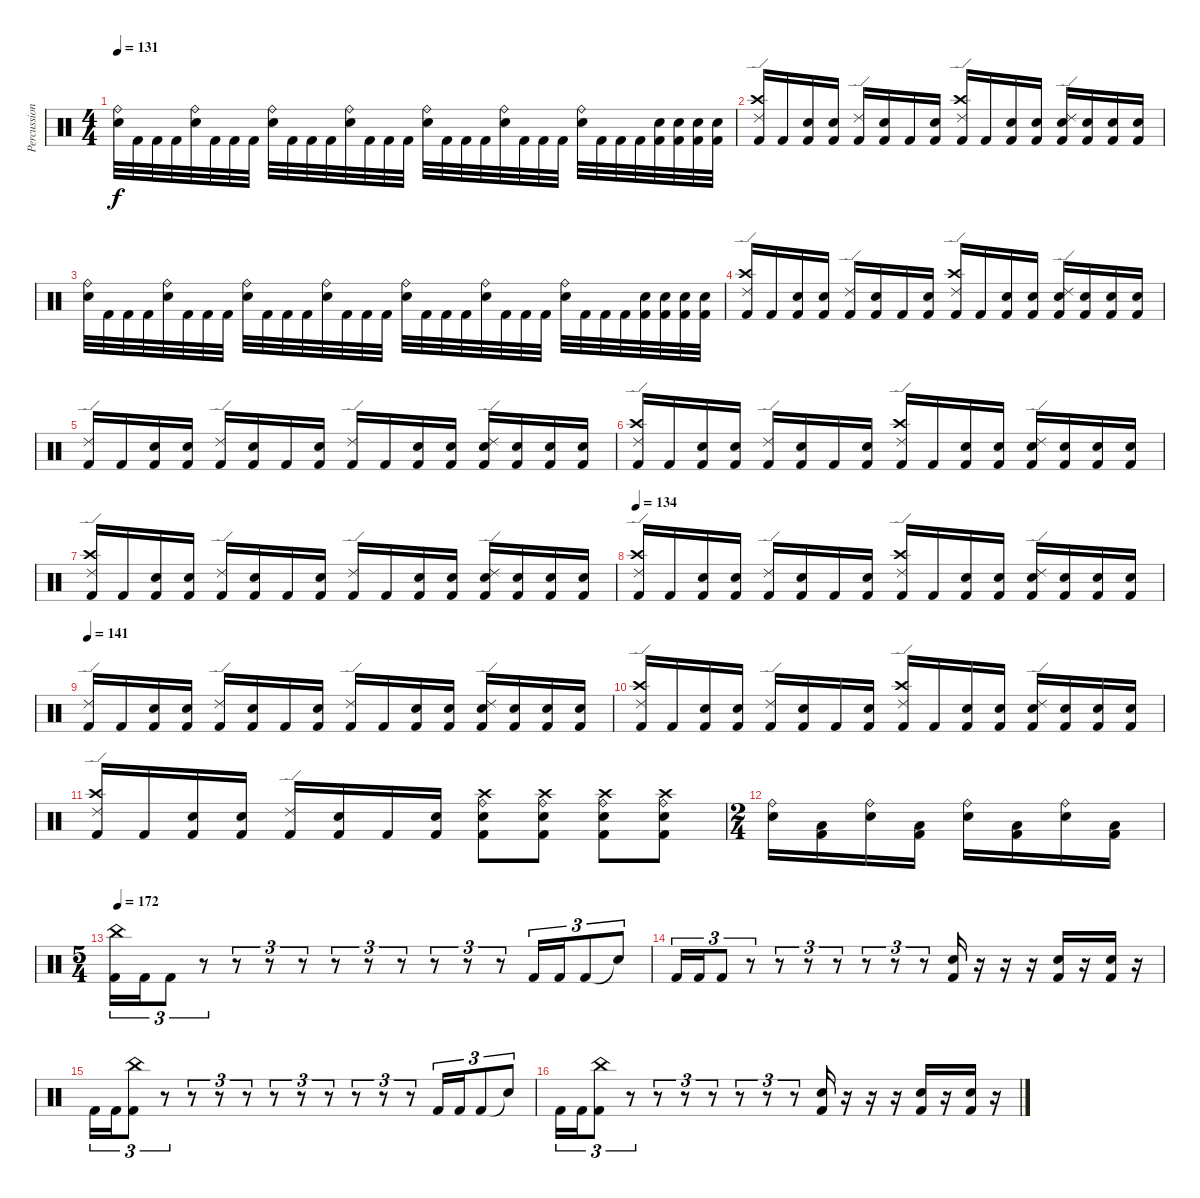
\track ("Percussion" "Percussion") {instrument percussion}
\staff {score}
\articulation defaults
\ts (4 4)
\tempo 131
\clef neutral
\ks c
("Ride (bell)" "Electric Snare (hit)").32{dy f} "Kick (hit) 2".32 "Kick (hit) 2".32 "Kick (hit) 2".32 ("Ride (bell)" "Electric Snare (hit)").32 "Kick (hit) 2".32 "Kick (hit) 2".32 "Kick (hit) 2".32 ("Ride (bell)" "Electric Snare (hit)").32 "Kick (hit) 2".32 "Kick (hit) 2".32 "Kick (hit) 2".32 ("Ride (bell)" "Electric Snare (hit)").32 "Kick (hit) 2".32 "Kick (hit) 2".32 "Kick (hit) 2".32 ("Ride (bell)" "Electric Snare (hit)").32 "Kick (hit) 2".32 "Kick (hit) 2".32 "Kick (hit) 2".32 ("Ride (bell)" "Electric Snare (hit)").32 "Kick (hit) 2".32 "Kick (hit) 2".32 "Kick (hit) 2".32 ("Ride (bell)" "Electric Snare (hit)").32 "Kick (hit) 2".32 "Kick (hit) 2".32 "Kick (hit) 2".32 ("Electric Snare (hit)" "Kick (hit) 2").32 ("Electric Snare (hit)" "Kick (hit) 2").32 ("Electric Snare (hit)" "Kick (hit) 2").32 ("Electric Snare (hit)" "Kick (hit) 2").32 |
("Crash high (hit)" "Ride (edge) 2" "Kick (hit) 2").16 "Kick (hit) 2".16 ("Electric Snare (hit)" "Kick (hit) 2").16 ("Electric Snare (hit)" "Kick (hit) 2").16 ("Ride (edge) 2" "Kick (hit) 2").16 ("Electric Snare (hit)" "Kick (hit) 2").16 "Kick (hit) 2".16 ("Electric Snare (hit)" "Kick (hit) 2").16 ("Crash high (hit)" "Ride (edge) 2" "Kick (hit) 2").16 "Kick (hit) 2".16 ("Electric Snare (hit)" "Kick (hit) 2").16 ("Electric Snare (hit)" "Kick (hit) 2").16 ("Ride (edge) 2" "Electric Snare (hit)" "Kick (hit) 2").16 ("Electric Snare (hit)" "Kick (hit) 2").16 ("Electric Snare (hit)" "Kick (hit) 2").16 ("Electric Snare (hit)" "Kick (hit) 2").16 |
("Ride (bell)" "Electric Snare (hit)").32 "Kick (hit) 2".32 "Kick (hit) 2".32 "Kick (hit) 2".32 ("Ride (bell)" "Electric Snare (hit)").32 "Kick (hit) 2".32 "Kick (hit) 2".32 "Kick (hit) 2".32 ("Ride (bell)" "Electric Snare (hit)").32 "Kick (hit) 2".32 "Kick (hit) 2".32 "Kick (hit) 2".32 ("Ride (bell)" "Electric Snare (hit)").32 "Kick (hit) 2".32 "Kick (hit) 2".32 "Kick (hit) 2".32 ("Ride (bell)" "Electric Snare (hit)").32 "Kick (hit) 2".32 "Kick (hit) 2".32 "Kick (hit) 2".32 ("Ride (bell)" "Electric Snare (hit)").32 "Kick (hit) 2".32 "Kick (hit) 2".32 "Kick (hit) 2".32 ("Ride (bell)" "Electric Snare (hit)").32 "Kick (hit) 2".32 "Kick (hit) 2".32 "Kick (hit) 2".32 ("Electric Snare (hit)" "Kick (hit) 2").32 ("Electric Snare (hit)" "Kick (hit) 2").32 ("Electric Snare (hit)" "Kick (hit) 2").32 ("Electric Snare (hit)" "Kick (hit) 2").32 |
("Crash high (hit)" "Ride (edge) 2" "Kick (hit) 2").16 "Kick (hit) 2".16 ("Electric Snare (hit)" "Kick (hit) 2").16 ("Electric Snare (hit)" "Kick (hit) 2").16 ("Ride (edge) 2" "Kick (hit) 2").16 ("Electric Snare (hit)" "Kick (hit) 2").16 "Kick (hit) 2".16 ("Electric Snare (hit)" "Kick (hit) 2").16 ("Crash high (hit)" "Ride (edge) 2" "Kick (hit) 2").16 "Kick (hit) 2".16 ("Electric Snare (hit)" "Kick (hit) 2").16 ("Electric Snare (hit)" "Kick (hit) 2").16 ("Ride (edge) 2" "Electric Snare (hit)" "Kick (hit) 2").16 ("Electric Snare (hit)" "Kick (hit) 2").16 ("Electric Snare (hit)" "Kick (hit) 2").16 ("Electric Snare (hit)" "Kick (hit) 2").16 |
("Ride (edge) 2" "Kick (hit) 2").16 "Kick (hit) 2".16 ("Electric Snare (hit)" "Kick (hit) 2").16 ("Electric Snare (hit)" "Kick (hit) 2").16 ("Ride (edge) 2" "Kick (hit) 2").16 ("Electric Snare (hit)" "Kick (hit) 2").16 "Kick (hit) 2".16 ("Electric Snare (hit)" "Kick (hit) 2").16 ("Ride (edge) 2" "Kick (hit) 2").16 "Kick (hit) 2".16 ("Electric Snare (hit)" "Kick (hit) 2").16 ("Electric Snare (hit)" "Kick (hit) 2").16 ("Ride (edge) 2" "Electric Snare (hit)" "Kick (hit) 2").16 ("Electric Snare (hit)" "Kick (hit) 2").16 ("Electric Snare (hit)" "Kick (hit) 2").16 ("Electric Snare (hit)" "Kick (hit) 2").16 |
("Crash high (hit)" "Ride (edge) 2" "Kick (hit) 2").16 "Kick (hit) 2".16 ("Electric Snare (hit)" "Kick (hit) 2").16 ("Electric Snare (hit)" "Kick (hit) 2").16 ("Ride (edge) 2" "Kick (hit) 2").16 ("Electric Snare (hit)" "Kick (hit) 2").16 "Kick (hit) 2".16 ("Electric Snare (hit)" "Kick (hit) 2").16 ("Crash high (hit)" "Ride (edge) 2" "Kick (hit) 2").16 "Kick (hit) 2".16 ("Electric Snare (hit)" "Kick (hit) 2").16 ("Electric Snare (hit)" "Kick (hit) 2").16 ("Ride (edge) 2" "Electric Snare (hit)" "Kick (hit) 2").16 ("Electric Snare (hit)" "Kick (hit) 2").16 ("Electric Snare (hit)" "Kick (hit) 2").16 ("Electric Snare (hit)" "Kick (hit) 2").16 |
("Crash high (hit)" "Ride (edge) 2" "Kick (hit) 2").16 "Kick (hit) 2".16 ("Electric Snare (hit)" "Kick (hit) 2").16 ("Electric Snare (hit)" "Kick (hit) 2").16 ("Ride (edge) 2" "Kick (hit) 2").16 ("Electric Snare (hit)" "Kick (hit) 2").16 "Kick (hit) 2".16 ("Electric Snare (hit)" "Kick (hit) 2").16 ("Ride (edge) 2" "Kick (hit) 2").16 "Kick (hit) 2".16 ("Electric Snare (hit)" "Kick (hit) 2").16 ("Electric Snare (hit)" "Kick (hit) 2").16 ("Ride (edge) 2" "Electric Snare (hit)" "Kick (hit) 2").16 ("Electric Snare (hit)" "Kick (hit) 2").16 ("Electric Snare (hit)" "Kick (hit) 2").16 ("Electric Snare (hit)" "Kick (hit) 2").16 |
\tempo 134
("Crash high (hit)" "Ride (edge) 2" "Kick (hit) 2").16 "Kick (hit) 2".16 ("Electric Snare (hit)" "Kick (hit) 2").16 ("Electric Snare (hit)" "Kick (hit) 2").16 ("Ride (edge) 2" "Kick (hit) 2").16 ("Electric Snare (hit)" "Kick (hit) 2").16 "Kick (hit) 2".16 ("Electric Snare (hit)" "Kick (hit) 2").16 ("Crash high (hit)" "Ride (edge) 2" "Kick (hit) 2").16 "Kick (hit) 2".16 ("Electric Snare (hit)" "Kick (hit) 2").16 ("Electric Snare (hit)" "Kick (hit) 2").16 ("Ride (edge) 2" "Electric Snare (hit)" "Kick (hit) 2").16 ("Electric Snare (hit)" "Kick (hit) 2").16 ("Electric Snare (hit)" "Kick (hit) 2").16 ("Electric Snare (hit)" "Kick (hit) 2").16 |
\tempo 141
("Ride (edge) 2" "Kick (hit) 2").16 "Kick (hit) 2".16 ("Electric Snare (hit)" "Kick (hit) 2").16 ("Electric Snare (hit)" "Kick (hit) 2").16 ("Ride (edge) 2" "Kick (hit) 2").16 ("Electric Snare (hit)" "Kick (hit) 2").16 "Kick (hit) 2".16 ("Electric Snare (hit)" "Kick (hit) 2").16 ("Ride (edge) 2" "Kick (hit) 2").16 "Kick (hit) 2".16 ("Electric Snare (hit)" "Kick (hit) 2").16 ("Electric Snare (hit)" "Kick (hit) 2").16 ("Ride (edge) 2" "Electric Snare (hit)" "Kick (hit) 2").16 ("Electric Snare (hit)" "Kick (hit) 2").16 ("Electric Snare (hit)" "Kick (hit) 2").16 ("Electric Snare (hit)" "Kick (hit) 2").16 |
("Crash high (hit)" "Ride (edge) 2" "Kick (hit) 2").16 "Kick (hit) 2".16 ("Electric Snare (hit)" "Kick (hit) 2").16 ("Electric Snare (hit)" "Kick (hit) 2").16 ("Ride (edge) 2" "Kick (hit) 2").16 ("Electric Snare (hit)" "Kick (hit) 2").16 "Kick (hit) 2".16 ("Electric Snare (hit)" "Kick (hit) 2").16 ("Crash high (hit)" "Ride (edge) 2" "Kick (hit) 2").16 "Kick (hit) 2".16 ("Electric Snare (hit)" "Kick (hit) 2").16 ("Electric Snare (hit)" "Kick (hit) 2").16 ("Ride (edge) 2" "Electric Snare (hit)" "Kick (hit) 2").16 ("Electric Snare (hit)" "Kick (hit) 2").16 ("Electric Snare (hit)" "Kick (hit) 2").16 ("Electric Snare (hit)" "Kick (hit) 2").16 |
("Crash high (hit)" "Ride (edge) 2" "Kick (hit) 2").16 "Kick (hit) 2".16 ("Electric Snare (hit)" "Kick (hit) 2").16 ("Electric Snare (hit)" "Kick (hit) 2").16 ("Ride (edge) 2" "Kick (hit) 2").16 ("Electric Snare (hit)" "Kick (hit) 2").16 "Kick (hit) 2".16 ("Electric Snare (hit)" "Kick (hit) 2").16 ("Crash high (hit)" "Ride (bell)" "Electric Snare (hit)" "Kick (hit) 2").8 ("Crash high (hit)" "Ride (bell)" "Electric Snare (hit)" "Kick (hit) 2").8 ("Crash high (hit)" "Ride (bell)" "Electric Snare (hit)" "Kick (hit) 2").8 ("Crash high (hit)" "Ride (bell)" "Electric Snare (hit)" "Kick (hit) 2").8 |
\ts (2 4)
("Ride (bell)" "Electric Snare (hit)").16 ("Low Tom (hit)" "Kick (hit) 2").16 ("Ride (bell)" "Electric Snare (hit)").16 ("Low Tom (hit)" "Kick (hit) 2").16 ("Ride (bell)" "Electric Snare (hit)").16 ("Low Tom (hit)" "Kick (hit) 2").16 ("Ride (bell)" "Electric Snare (hit)").16 ("Low Tom (hit)" "Kick (hit) 2").16 |
\ts (5 4)
\tempo 172
("China (hit)" "Kick (hit) 2").16{tu (3 2)} "Kick (hit) 2".16{tu (3 2)} "Kick (hit) 2".8{tu (3 2)} r.8{tu (3 2)} r.8{tu (3 2)} r.8{tu (3 2)} r.8{tu (3 2)} r.8{tu (3 2)} r.8{tu (3 2)} r.8{tu (3 2)} r.8{tu (3 2)} r.8{tu (3 2)} r.8{tu (3 2)} "Kick (hit) 2".16{tu (3 2)} "Kick (hit) 2".16{tu (3 2)} "Kick (hit) 2".8{tu (3 2)} "Snare (hit)"{t}.8{tu (3 2)} |
"Kick (hit) 2".16{tu (3 2)} "Kick (hit) 2".16{tu (3 2)} "Kick (hit) 2".8{tu (3 2)} r.8{tu (3 2)} r.8{tu (3 2)} r.8{tu (3 2)} r.8{tu (3 2)} r.8{tu (3 2)} r.8{tu (3 2)} r.8{tu (3 2)} ("Electric Snare (hit)" "Kick (hit) 2").16 r.16 r.16 r.16 ("Electric Snare (hit)" "Kick (hit) 2").16 r.16 ("Electric Snare (hit)" "Kick (hit) 2").16 r.16 |
"Kick (hit) 2".16{tu (3 2)} "Kick (hit) 2".16{tu (3 2)} ("China (hit)" "Kick (hit) 2").8{tu (3 2)} r.8{tu (3 2)} r.8{tu (3 2)} r.8{tu (3 2)} r.8{tu (3 2)} r.8{tu (3 2)} r.8{tu (3 2)} r.8{tu (3 2)} r.8{tu (3 2)} r.8{tu (3 2)} r.8{tu (3 2)} "Kick (hit) 2".16{tu (3 2)} "Kick (hit) 2".16{tu (3 2)} "Kick (hit) 2".8{tu (3 2)} "Snare (hit)"{t}.8{tu (3 2)} |
"Kick (hit) 2".16{tu (3 2)} "Kick (hit) 2".16{tu (3 2)} ("China (hit)" "Kick (hit) 2").8{tu (3 2)} r.8{tu (3 2)} r.8{tu (3 2)} r.8{tu (3 2)} r.8{tu (3 2)} r.8{tu (3 2)} r.8{tu (3 2)} r.8{tu (3 2)} ("Electric Snare (hit)" "Kick (hit) 2").16 r.16 r.16 r.16 ("Electric Snare (hit)" "Kick (hit) 2").16 r.16 ("Electric Snare (hit)" "Kick (hit) 2").16 r.16
